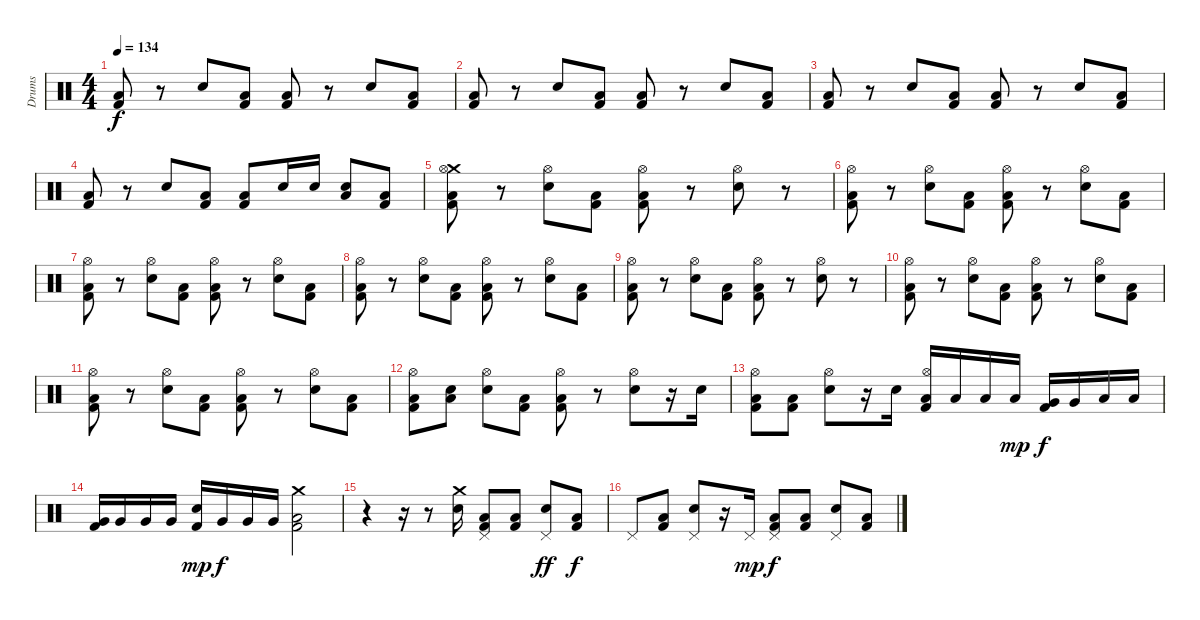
\track ("Drums" "Drums") {instrument percussion}
\staff {score}
\articulation defaults
\ts (4 4)
\tempo 134
\clef neutral
\ks c
("Kick (hit) 2" "Low Floor Tom (hit)").8{dy f} r.8 "Snare (hit) 2".8 ("Kick (hit) 2" "Low Floor Tom (hit)").8 ("Kick (hit) 2" "Low Floor Tom (hit)").8 r.8 "Snare (hit) 2".8 ("Kick (hit) 2" "Low Floor Tom (hit)").8 |
("Kick (hit) 2" "Low Floor Tom (hit)").8 r.8 "Snare (hit) 2".8 ("Kick (hit) 2" "Low Floor Tom (hit)").8 ("Kick (hit) 2" "Low Floor Tom (hit)").8 r.8 "Snare (hit) 2".8 ("Kick (hit) 2" "Low Floor Tom (hit)").8 |
("Kick (hit) 2" "Low Floor Tom (hit)").8 r.8 "Snare (hit) 2".8 ("Kick (hit) 2" "Low Floor Tom (hit)").8 ("Kick (hit) 2" "Low Floor Tom (hit)").8 r.8 "Snare (hit) 2".8 ("Kick (hit) 2" "Low Floor Tom (hit)").8 |
("Kick (hit) 2" "Low Floor Tom (hit)").8 r.8 "Snare (hit) 2".8 ("Kick (hit) 2" "Low Floor Tom (hit)").8 ("Kick (hit) 2" "Low Floor Tom (hit)").8 "Snare (hit) 2".16 "Snare (hit) 2".16 ("Snare (hit) 2" "Low Floor Tom (hit)").8 ("Kick (hit) 2" "Low Floor Tom (hit)").8 |
("Crash medium (hit)" "Hi-Hat (open)" "Kick (hit) 2" "Low Floor Tom (hit)").8 r.8 ("Hi-Hat (open)" "Snare (hit) 2").8 ("Kick (hit) 2" "Low Floor Tom (hit)").8 ("Hi-Hat (open)" "Kick (hit) 2" "Low Floor Tom (hit)").8 r.8 ("Hi-Hat (open)" "Snare (hit) 2").8 r.8 |
("Hi-Hat (open)" "Kick (hit) 2" "Low Floor Tom (hit)").8 r.8 ("Hi-Hat (open)" "Snare (hit) 2").8 ("Kick (hit) 2" "Low Floor Tom (hit)").8 ("Hi-Hat (open)" "Kick (hit) 2" "Low Floor Tom (hit)").8 r.8 ("Hi-Hat (open)" "Snare (hit) 2").8 ("Kick (hit) 2" "Low Floor Tom (hit)").8 |
("Hi-Hat (open)" "Kick (hit) 2" "Low Floor Tom (hit)").8 r.8 ("Hi-Hat (open)" "Snare (hit) 2").8 ("Kick (hit) 2" "Low Floor Tom (hit)").8 ("Hi-Hat (open)" "Kick (hit) 2" "Low Floor Tom (hit)").8 r.8 ("Hi-Hat (open)" "Snare (hit) 2").8 ("Kick (hit) 2" "Low Floor Tom (hit)").8 |
("Hi-Hat (open)" "Kick (hit) 2" "Low Floor Tom (hit)").8 r.8 ("Hi-Hat (open)" "Snare (hit) 2").8 ("Kick (hit) 2" "Low Floor Tom (hit)").8 ("Hi-Hat (open)" "Kick (hit) 2" "Low Floor Tom (hit)").8 r.8 ("Hi-Hat (open)" "Snare (hit) 2").8 ("Kick (hit) 2" "Low Floor Tom (hit)").8 |
("Hi-Hat (open)" "Kick (hit) 2" "Low Floor Tom (hit)").8 r.8 ("Hi-Hat (open)" "Snare (hit) 2").8 ("Kick (hit) 2" "Low Floor Tom (hit)").8 ("Hi-Hat (open)" "Kick (hit) 2" "Low Floor Tom (hit)").8 r.8 ("Hi-Hat (open)" "Snare (hit) 2").8 r.8 |
("Hi-Hat (open)" "Kick (hit) 2" "Low Floor Tom (hit)").8 r.8 ("Hi-Hat (open)" "Snare (hit) 2").8 ("Kick (hit) 2" "Low Floor Tom (hit)").8 ("Hi-Hat (open)" "Kick (hit) 2" "Low Floor Tom (hit)").8 r.8 ("Hi-Hat (open)" "Snare (hit) 2").8 ("Kick (hit) 2" "Low Floor Tom (hit)").8 |
("Hi-Hat (open)" "Kick (hit) 2" "Low Floor Tom (hit)").8 r.8 ("Hi-Hat (open)" "Snare (hit) 2").8 ("Kick (hit) 2" "Low Floor Tom (hit)").8 ("Hi-Hat (open)" "Kick (hit) 2" "Low Floor Tom (hit)").8 r.8 ("Hi-Hat (open)" "Snare (hit) 2").8 ("Kick (hit) 2" "Low Floor Tom (hit)").8 |
("Hi-Hat (open)" "Kick (hit) 2" "Low Floor Tom (hit)").8 ("Snare (hit) 2" "Low Floor Tom (hit)").8 ("Hi-Hat (open)" "Snare (hit) 2").8 ("Kick (hit) 2" "Low Floor Tom (hit)").8 ("Hi-Hat (open)" "Kick (hit) 2" "Low Floor Tom (hit)").8 r.8 ("Hi-Hat (open)" "Snare (hit) 2").8 r.16 "Snare (hit) 2".16 |
("Hi-Hat (open)" "Kick (hit) 2" "Low Floor Tom (hit)").8 ("Kick (hit) 2" "Low Floor Tom (hit)").8 ("Hi-Hat (open)" "Snare (hit) 2").8 r.16 "Snare (hit) 2".16 ("Hi-Hat (open)" "Low Tom (hit)" "Kick (hit) 2").16 "Low Tom (hit)".16 "Low Floor Tom (hit)".16 "Low Floor Tom (hit)".16{dy mp} ("Very Low Tom (hit)" "Kick (hit) 2").16{dy f} "Very Low Tom (hit)".16 "Low Floor Tom (hit)".16 "Low Floor Tom (hit)".16 |
("Very Low Tom (hit)" "Kick (hit) 2").16 "Very Low Tom (hit)".16 "Very Low Tom (hit)".16 "Very Low Tom (hit)".16 ("Snare (hit) 2" "Kick (hit) 2").16{dy mp} "Very Low Tom (hit)".16{dy f} "Very Low Tom (hit)".16 "Very Low Tom (hit)".16 ("Crash medium (hit)" "Kick (hit) 2" "Low Floor Tom (hit)").2 |
r.4 r.16 r.8 ("Crash medium (hit)" "Snare (hit) 2").16 ("Pedal Hi-Hat (hit)" "Kick (hit) 2" "Low Floor Tom (hit)").8 ("Kick (hit) 2" "Low Floor Tom (hit)").8 ("Pedal Hi-Hat (hit)" "Snare (hit) 2").8{dy ff} ("Kick (hit) 2" "Low Floor Tom (hit)").8{dy f} |
"Pedal Hi-Hat (hit)".8 ("Kick (hit) 2" "Low Floor Tom (hit)").8 ("Pedal Hi-Hat (hit)" "Snare (hit) 2").8 r.16 "Pedal Hi-Hat (hit)".16{dy mp} ("Pedal Hi-Hat (hit)" "Kick (hit) 2" "Low Floor Tom (hit)").8{dy f} ("Kick (hit) 2" "Low Floor Tom (hit)").8 ("Pedal Hi-Hat (hit)" "Snare (hit) 2").8 ("Kick (hit) 2" "Low Floor Tom (hit)").8
